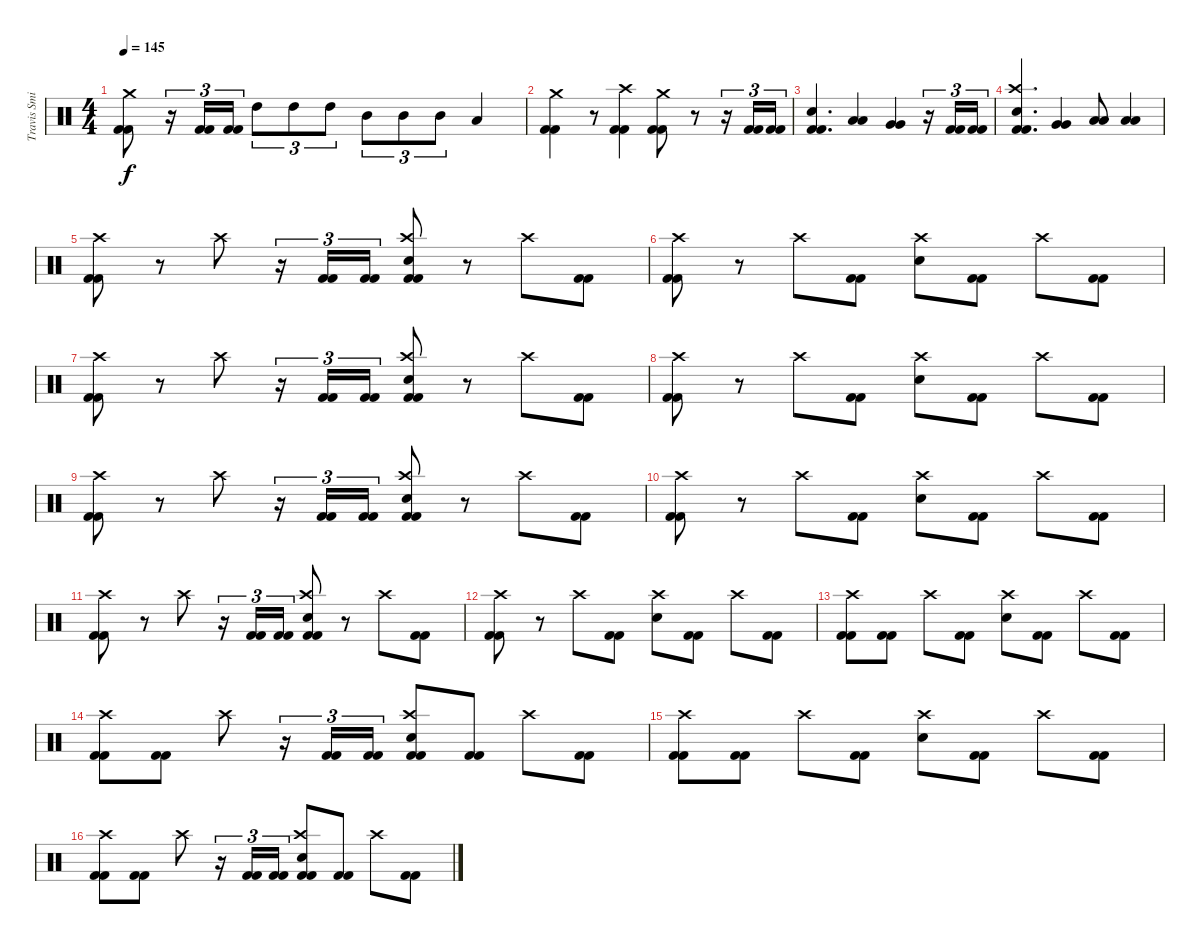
\track ("Travis Smith" "Travis Smi") {instrument percussion}
\staff {score}
\articulation defaults
\ts (4 4)
\tempo 145
\clef neutral
\ks c
("Crash medium (hit)" "Kick (hit) 2" "Kick (hit) 2").8{dy f} r.16{tu (3 2)} ("Kick (hit) 2" "Kick (hit) 2").16{tu (3 2)} ("Kick (hit) 2" "Kick (hit) 2").16{tu (3 2)} "High Tom (hit)".8{tu (3 2)} "High Tom (hit)".8{tu (3 2)} "High Tom (hit)".8{tu (3 2)} "Mid Tom (hit)".8{tu (3 2)} "Mid Tom (hit)".8{tu (3 2)} "Mid Tom (hit)".8{tu (3 2)} "Low Tom (hit)".4 |
("Crash medium (hit)" "Kick (hit) 2" "Kick (hit) 2").4 r.8 ("Crash high (hit)" "Kick (hit) 2" "Kick (hit) 2").4 ("Crash medium (hit)" "Kick (hit) 2" "Kick (hit) 2").8 r.8 r.16{tu (3 2)} ("Kick (hit) 2" "Kick (hit) 2").16{tu (3 2)} ("Kick (hit) 2" "Kick (hit) 2").16{tu (3 2)} |
("Electric Snare (hit)" "Kick (hit) 2" "Kick (hit) 2").4{d} ("Low Tom (hit)" "Low Tom (hit)").4 ("Very Low Tom (hit)" "Very Low Tom (hit)").4 r.16{tu (3 2)} ("Kick (hit) 2" "Kick (hit) 2").16{tu (3 2)} ("Kick (hit) 2" "Kick (hit) 2").16{tu (3 2)} |
("Crash high (hit)" "Electric Snare (hit)" "Kick (hit) 2" "Kick (hit) 2").4{d} ("Very Low Tom (hit)" "Very Low Tom (hit)").4 ("Low Floor Tom (hit)" "Low Floor Tom (hit)").8 ("Low Floor Tom (hit)" "Low Floor Tom (hit)").4 |
("Crash high (hit)" "Kick (hit) 2" "Kick (hit) 2").8 r.8 "Crash high (hit)".8 r.16{tu (3 2)} ("Kick (hit) 2" "Kick (hit) 2").16{tu (3 2)} ("Kick (hit) 2" "Kick (hit) 2").16{tu (3 2)} ("Crash high (hit)" "Electric Snare (hit)" "Kick (hit) 2" "Kick (hit) 2").8 r.8 "Crash high (hit)".8 ("Kick (hit) 2" "Kick (hit) 2").8 |
("Crash high (hit)" "Kick (hit) 2" "Kick (hit) 2").8 r.8 "Crash high (hit)".8 ("Kick (hit) 2" "Kick (hit) 2").8 ("Crash high (hit)" "Electric Snare (hit)").8 ("Kick (hit) 2" "Kick (hit) 2").8 "Crash high (hit)".8 ("Kick (hit) 2" "Kick (hit) 2").8 |
("Crash high (hit)" "Kick (hit) 2" "Kick (hit) 2").8 r.8 "Crash high (hit)".8 r.16{tu (3 2)} ("Kick (hit) 2" "Kick (hit) 2").16{tu (3 2)} ("Kick (hit) 2" "Kick (hit) 2").16{tu (3 2)} ("Crash high (hit)" "Electric Snare (hit)" "Kick (hit) 2" "Kick (hit) 2").8 r.8 "Crash high (hit)".8 ("Kick (hit) 2" "Kick (hit) 2").8 |
("Crash high (hit)" "Kick (hit) 2" "Kick (hit) 2").8 r.8 "Crash high (hit)".8 ("Kick (hit) 2" "Kick (hit) 2").8 ("Crash high (hit)" "Electric Snare (hit)").8 ("Kick (hit) 2" "Kick (hit) 2").8 "Crash high (hit)".8 ("Kick (hit) 2" "Kick (hit) 2").8 |
("Crash high (hit)" "Kick (hit) 2" "Kick (hit) 2").8 r.8 "Crash high (hit)".8 r.16{tu (3 2)} ("Kick (hit) 2" "Kick (hit) 2").16{tu (3 2)} ("Kick (hit) 2" "Kick (hit) 2").16{tu (3 2)} ("Crash high (hit)" "Electric Snare (hit)" "Kick (hit) 2" "Kick (hit) 2").8 r.8 "Crash high (hit)".8 ("Kick (hit) 2" "Kick (hit) 2").8 |
("Crash high (hit)" "Kick (hit) 2" "Kick (hit) 2").8 r.8 "Crash high (hit)".8 ("Kick (hit) 2" "Kick (hit) 2").8 ("Crash high (hit)" "Electric Snare (hit)").8 ("Kick (hit) 2" "Kick (hit) 2").8 "Crash high (hit)".8 ("Kick (hit) 2" "Kick (hit) 2").8 |
("Crash high (hit)" "Kick (hit) 2" "Kick (hit) 2").8 r.8 "Crash high (hit)".8 r.16{tu (3 2)} ("Kick (hit) 2" "Kick (hit) 2").16{tu (3 2)} ("Kick (hit) 2" "Kick (hit) 2").16{tu (3 2)} ("Crash high (hit)" "Electric Snare (hit)" "Kick (hit) 2" "Kick (hit) 2").8 r.8 "Crash high (hit)".8 ("Kick (hit) 2" "Kick (hit) 2").8 |
("Crash high (hit)" "Kick (hit) 2" "Kick (hit) 2").8 r.8 "Crash high (hit)".8 ("Kick (hit) 2" "Kick (hit) 2").8 ("Crash high (hit)" "Electric Snare (hit)").8 ("Kick (hit) 2" "Kick (hit) 2").8 "Crash high (hit)".8 ("Kick (hit) 2" "Kick (hit) 2").8 |
("Crash high (hit)" "Kick (hit) 2" "Kick (hit) 2").8 ("Kick (hit) 2" "Kick (hit) 2").8 "Crash high (hit)".8 ("Kick (hit) 2" "Kick (hit) 2").8 ("Crash high (hit)" "Electric Snare (hit)").8 ("Kick (hit) 2" "Kick (hit) 2").8 "Crash high (hit)".8 ("Kick (hit) 2" "Kick (hit) 2").8 |
("Crash high (hit)" "Kick (hit) 2" "Kick (hit) 2").8 ("Kick (hit) 2" "Kick (hit) 2").8 "Crash high (hit)".8 r.16{tu (3 2)} ("Kick (hit) 2" "Kick (hit) 2").16{tu (3 2)} ("Kick (hit) 2" "Kick (hit) 2").16{tu (3 2)} ("Crash high (hit)" "Electric Snare (hit)" "Kick (hit) 2" "Kick (hit) 2").8 ("Kick (hit) 2" "Kick (hit) 2").8 "Crash high (hit)".8 ("Kick (hit) 2" "Kick (hit) 2").8 |
("Crash high (hit)" "Kick (hit) 2" "Kick (hit) 2").8 ("Kick (hit) 2" "Kick (hit) 2").8 "Crash high (hit)".8 ("Kick (hit) 2" "Kick (hit) 2").8 ("Crash high (hit)" "Electric Snare (hit)").8 ("Kick (hit) 2" "Kick (hit) 2").8 "Crash high (hit)".8 ("Kick (hit) 2" "Kick (hit) 2").8 |
("Crash high (hit)" "Kick (hit) 2" "Kick (hit) 2").8 ("Kick (hit) 2" "Kick (hit) 2").8 "Crash high (hit)".8 r.16{tu (3 2)} ("Kick (hit) 2" "Kick (hit) 2").16{tu (3 2)} ("Kick (hit) 2" "Kick (hit) 2").16{tu (3 2)} ("Crash high (hit)" "Electric Snare (hit)" "Kick (hit) 2" "Kick (hit) 2").8 ("Kick (hit) 2" "Kick (hit) 2").8 "Crash high (hit)".8 ("Kick (hit) 2" "Kick (hit) 2").8
